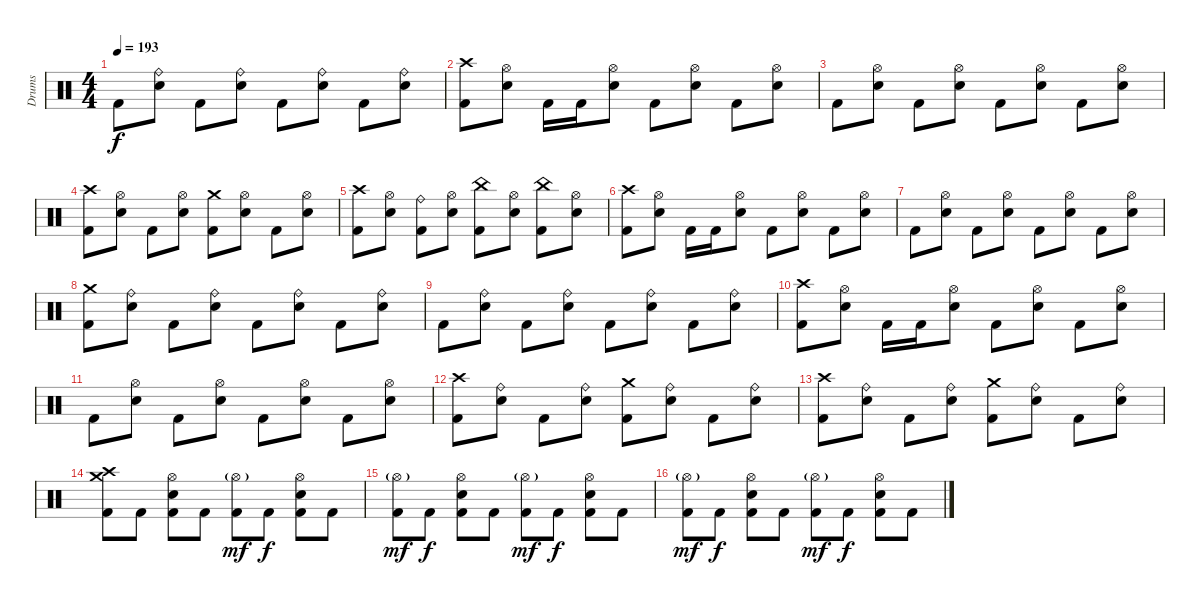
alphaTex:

\track ("Drums" "Drums") {instrument percussion}
\staff {score}
\articulation defaults
\ts (4 4)
\tempo 193
\clef neutral
\ks c "Kick (hit) 2".8{dy f}
("Ride (bell)" "Electric Snare (hit)").8 "Kick (hit) 2".8 ("Ride (bell)" "Electric Snare (hit)").8 "Kick (hit) 2".8 ("Ride (bell)" "Electric Snare (hit)").8 "Kick (hit) 2".8 ("Ride (bell)" "Electric Snare (hit)").8 |
("Crash high (hit)" "Kick (hit) 2").8 ("Hi-Hat (open)" "Electric Snare (hit)").8 "Kick (hit) 2".16 "Kick (hit) 2".16 ("Hi-Hat (open)" "Electric Snare (hit)").8 "Kick (hit) 2".8 ("Hi-Hat (open)" "Electric Snare (hit)").8 "Kick (hit) 2".8 ("Hi-Hat (open)" "Electric Snare (hit)").8 |
"Kick (hit) 2".8 ("Hi-Hat (open)" "Electric Snare (hit)").8 "Kick (hit) 2".8 ("Hi-Hat (open)" "Electric Snare (hit)").8 "Kick (hit) 2".8 ("Hi-Hat (open)" "Electric Snare (hit)").8 "Kick (hit) 2".8 ("Hi-Hat (open)" "Electric Snare (hit)").8 |
("Crash high (hit)" "Kick (hit) 2").8 ("Hi-Hat (open)" "Electric Snare (hit)").8 "Kick (hit) 2".8 ("Hi-Hat (open)" "Electric Snare (hit)").8 ("Crash medium (hit)" "Kick (hit) 2").8 ("Hi-Hat (open)" "Electric Snare (hit)").8 "Kick (hit) 2".8 ("Hi-Hat (open)" "Electric Snare (hit)").8 |
("Crash high (hit)" "Kick (hit) 2").8 ("Hi-Hat (open)" "Electric Snare (hit)").8 ("Ride (bell)" "Kick (hit) 2").8 ("Hi-Hat (open)" "Electric Snare (hit)").8 ("China (hit)" "Kick (hit) 2").8 ("Hi-Hat (open)" "Electric Snare (hit)").8 ("China (hit)" "Kick (hit) 2").8 ("Hi-Hat (open)" "Electric Snare (hit)").8 |
("Crash high (hit)" "Kick (hit) 2").8 ("Hi-Hat (open)" "Electric Snare (hit)").8 "Kick (hit) 2".16 "Kick (hit) 2".16 ("Hi-Hat (open)" "Electric Snare (hit)").8 "Kick (hit) 2".8 ("Hi-Hat (open)" "Electric Snare (hit)").8 "Kick (hit) 2".8 ("Hi-Hat (open)" "Electric Snare (hit)").8 |
"Kick (hit) 2".8 ("Hi-Hat (open)" "Electric Snare (hit)").8 "Kick (hit) 2".8 ("Hi-Hat (open)" "Electric Snare (hit)").8 "Kick (hit) 2".8 ("Hi-Hat (open)" "Electric Snare (hit)").8 "Kick (hit) 2".8 ("Hi-Hat (open)" "Electric Snare (hit)").8 |
("Crash medium (hit)" "Kick (hit) 2").8 ("Ride (bell)" "Electric Snare (hit)").8 "Kick (hit) 2".8 ("Ride (bell)" "Electric Snare (hit)").8 "Kick (hit) 2".8 ("Ride (bell)" "Electric Snare (hit)").8 "Kick (hit) 2".8 ("Ride (bell)" "Electric Snare (hit)").8 |
"Kick (hit) 2".8 ("Ride (bell)" "Electric Snare (hit)").8 "Kick (hit) 2".8 ("Ride (bell)" "Electric Snare (hit)").8 "Kick (hit) 2".8 ("Ride (bell)" "Electric Snare (hit)").8 "Kick (hit) 2".8 ("Ride (bell)" "Electric Snare (hit)").8 |
("Crash high (hit)" "Kick (hit) 2").8 ("Hi-Hat (open)" "Electric Snare (hit)").8 "Kick (hit) 2".16 "Kick (hit) 2".16 ("Hi-Hat (open)" "Electric Snare (hit)").8 "Kick (hit) 2".8 ("Hi-Hat (open)" "Electric Snare (hit)").8 "Kick (hit) 2".8 ("Hi-Hat (open)" "Electric Snare (hit)").8 |
"Kick (hit) 2".8 ("Hi-Hat (open)" "Electric Snare (hit)").8 "Kick (hit) 2".8 ("Hi-Hat (open)" "Electric Snare (hit)").8 "Kick (hit) 2".8 ("Hi-Hat (open)" "Electric Snare (hit)").8 "Kick (hit) 2".8 ("Hi-Hat (open)" "Electric Snare (hit)").8 |
("Crash high (hit)" "Kick (hit) 2").8 ("Ride (bell)" "Electric Snare (hit)").8 "Kick (hit) 2".8 ("Ride (bell)" "Electric Snare (hit)").8 ("Crash medium (hit)" "Kick (hit) 2").8 ("Ride (bell)" "Electric Snare (hit)").8 "Kick (hit) 2".8 ("Ride (bell)" "Electric Snare (hit)").8 |
("Crash high (hit)" "Kick (hit) 2").8 ("Ride (bell)" "Electric Snare (hit)").8 "Kick (hit) 2".8 ("Ride (bell)" "Electric Snare (hit)").8 ("Crash medium (hit)" "Kick (hit) 2").8 ("Ride (bell)" "Electric Snare (hit)").8 "Kick (hit) 2".8 ("Ride (bell)" "Electric Snare (hit)").8 |
("Crash high (hit)" "Crash medium (hit)" "Kick (hit) 2").8 "Kick (hit) 2".8 ("Hi-Hat (open)" "Electric Snare (hit)" "Kick (hit) 2").8 "Kick (hit) 2".8 ("Hi-Hat (open)"{g} "Kick (hit) 2").8{dy mf} "Kick (hit) 2".8{dy f} ("Hi-Hat (open)" "Electric Snare (hit)" "Kick (hit) 2").8 "Kick (hit) 2".8 |
("Hi-Hat (open)"{g} "Kick (hit) 2").8{dy mf} "Kick (hit) 2".8{dy f} ("Hi-Hat (open)" "Electric Snare (hit)" "Kick (hit) 2").8 "Kick (hit) 2".8 ("Hi-Hat (open)"{g} "Kick (hit) 2").8{dy mf} "Kick (hit) 2".8{dy f} ("Hi-Hat (open)" "Electric Snare (hit)" "Kick (hit) 2").8 "Kick (hit) 2".8 |
("Hi-Hat (open)"{g} "Kick (hit) 2").8{dy mf} "Kick (hit) 2".8{dy f} ("Hi-Hat (open)" "Electric Snare (hit)" "Kick (hit) 2").8 "Kick (hit) 2".8 ("Hi-Hat (open)"{g} "Kick (hit) 2").8{dy mf} "Kick (hit) 2".8{dy f} ("Hi-Hat (open)" "Electric Snare (hit)" "Kick (hit) 2").8 "Kick (hit) 2".8
